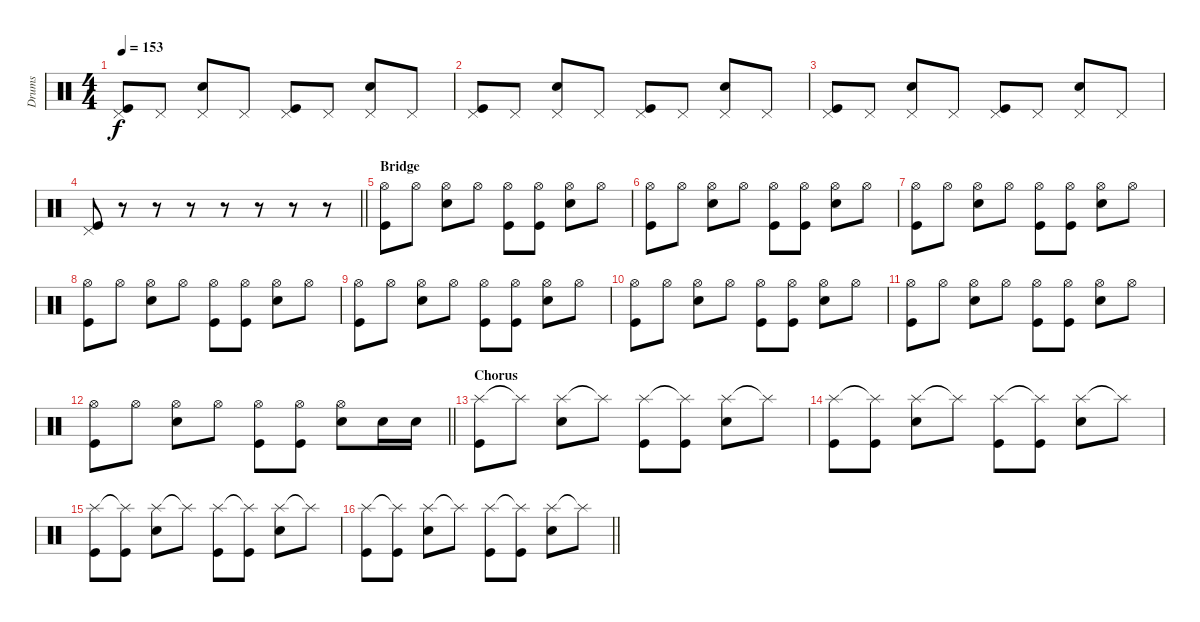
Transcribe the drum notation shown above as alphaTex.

\track ("Drums" "Drums") {instrument percussion}
\staff {score}
\articulation defaults
\ts (4 4)
\tempo 153
\clef neutral
\ks c
("Pedal Hi-Hat (hit)" "Kick (hit)").8{dy f} "Pedal Hi-Hat (hit)".8 ("Pedal Hi-Hat (hit)" "Snare (hit) 2").8 "Pedal Hi-Hat (hit)".8 ("Pedal Hi-Hat (hit)" "Kick (hit)").8 "Pedal Hi-Hat (hit)".8 ("Pedal Hi-Hat (hit)" "Snare (hit) 2").8 "Pedal Hi-Hat (hit)".8 |
("Pedal Hi-Hat (hit)" "Kick (hit)").8 "Pedal Hi-Hat (hit)".8 ("Pedal Hi-Hat (hit)" "Snare (hit) 2").8 "Pedal Hi-Hat (hit)".8 ("Pedal Hi-Hat (hit)" "Kick (hit)").8 "Pedal Hi-Hat (hit)".8 ("Pedal Hi-Hat (hit)" "Snare (hit) 2").8 "Pedal Hi-Hat (hit)".8 |
("Pedal Hi-Hat (hit)" "Kick (hit)").8 "Pedal Hi-Hat (hit)".8 ("Pedal Hi-Hat (hit)" "Snare (hit) 2").8 "Pedal Hi-Hat (hit)".8 ("Pedal Hi-Hat (hit)" "Kick (hit)").8 "Pedal Hi-Hat (hit)".8 ("Pedal Hi-Hat (hit)" "Snare (hit) 2").8 "Pedal Hi-Hat (hit)".8 |
\barLineRight lightlight
("Pedal Hi-Hat (hit)" "Kick (hit)").8 r.8 r.8 r.8 r.8 r.8 r.8 r.8 |
\section ("" "Bridge")
("Hi-Hat (open)" "Kick (hit)").8 "Hi-Hat (open)".8 ("Hi-Hat (open)" "Snare (hit) 2").8 "Hi-Hat (open)".8 ("Hi-Hat (open)" "Kick (hit)").8 ("Hi-Hat (open)" "Kick (hit)").8 ("Hi-Hat (open)" "Snare (hit) 2").8 "Hi-Hat (open)".8 |
("Hi-Hat (open)" "Kick (hit)").8 "Hi-Hat (open)".8 ("Hi-Hat (open)" "Snare (hit) 2").8 "Hi-Hat (open)".8 ("Hi-Hat (open)" "Kick (hit)").8 ("Hi-Hat (open)" "Kick (hit)").8 ("Hi-Hat (open)" "Snare (hit) 2").8 "Hi-Hat (open)".8 |
("Hi-Hat (open)" "Kick (hit)").8 "Hi-Hat (open)".8 ("Hi-Hat (open)" "Snare (hit) 2").8 "Hi-Hat (open)".8 ("Hi-Hat (open)" "Kick (hit)").8 ("Hi-Hat (open)" "Kick (hit)").8 ("Hi-Hat (open)" "Snare (hit) 2").8 "Hi-Hat (open)".8 |
("Hi-Hat (open)" "Kick (hit)").8 "Hi-Hat (open)".8 ("Hi-Hat (open)" "Snare (hit) 2").8 "Hi-Hat (open)".8 ("Hi-Hat (open)" "Kick (hit)").8 ("Hi-Hat (open)" "Kick (hit)").8 ("Hi-Hat (open)" "Snare (hit) 2").8 "Hi-Hat (open)".8 |
("Hi-Hat (open)" "Kick (hit)").8 "Hi-Hat (open)".8 ("Hi-Hat (open)" "Snare (hit) 2").8 "Hi-Hat (open)".8 ("Hi-Hat (open)" "Kick (hit)").8 ("Hi-Hat (open)" "Kick (hit)").8 ("Hi-Hat (open)" "Snare (hit) 2").8 "Hi-Hat (open)".8 |
("Hi-Hat (open)" "Kick (hit)").8 "Hi-Hat (open)".8 ("Hi-Hat (open)" "Snare (hit) 2").8 "Hi-Hat (open)".8 ("Hi-Hat (open)" "Kick (hit)").8 ("Hi-Hat (open)" "Kick (hit)").8 ("Hi-Hat (open)" "Snare (hit) 2").8 "Hi-Hat (open)".8 |
("Hi-Hat (open)" "Kick (hit)").8 "Hi-Hat (open)".8 ("Hi-Hat (open)" "Snare (hit) 2").8 "Hi-Hat (open)".8 ("Hi-Hat (open)" "Kick (hit)").8 ("Hi-Hat (open)" "Kick (hit)").8 ("Hi-Hat (open)" "Snare (hit) 2").8 "Hi-Hat (open)".8 |
\barLineRight lightlight
("Hi-Hat (open)" "Kick (hit)").8 "Hi-Hat (open)".8 ("Hi-Hat (open)" "Snare (hit) 2").8 "Hi-Hat (open)".8 ("Hi-Hat (open)" "Kick (hit)").8 ("Hi-Hat (open)" "Kick (hit)").8 ("Hi-Hat (open)" "Snare (hit) 2").8 "Snare (hit) 2".16 "Snare (hit) 2".16 |
\section ("" "Chorus")
("Splash (hit)" "Kick (hit)").8 "Splash (hit)"{t}.8 ("Splash (hit)" "Snare (hit) 2").8 "Splash (hit)"{t}.8 ("Splash (hit)" "Kick (hit)").8 ("Splash (hit)"{t} "Kick (hit)").8 ("Splash (hit)" "Snare (hit) 2").8 "Splash (hit)"{t}.8 |
("Splash (hit)" "Kick (hit)").8 ("Splash (hit)"{t} "Kick (hit)").8 ("Splash (hit)" "Snare (hit) 2").8 "Splash (hit)"{t}.8 ("Splash (hit)" "Kick (hit)").8 ("Splash (hit)"{t} "Kick (hit)").8 ("Splash (hit)" "Snare (hit) 2").8 "Splash (hit)"{t}.8 |
("Splash (hit)" "Kick (hit)").8 ("Splash (hit)"{t} "Kick (hit)").8 ("Splash (hit)" "Snare (hit) 2").8 "Splash (hit)"{t}.8 ("Splash (hit)" "Kick (hit)").8 ("Splash (hit)"{t} "Kick (hit)").8 ("Splash (hit)" "Snare (hit) 2").8 "Splash (hit)"{t}.8 |
\barLineRight lightlight
("Splash (hit)" "Kick (hit)").8 ("Splash (hit)"{t} "Kick (hit)").8 ("Splash (hit)" "Snare (hit) 2").8 "Splash (hit)"{t}.8 ("Splash (hit)" "Kick (hit)").8 ("Splash (hit)"{t} "Kick (hit)").8 ("Splash (hit)" "Snare (hit) 2").8 "Splash (hit)"{t}.8
